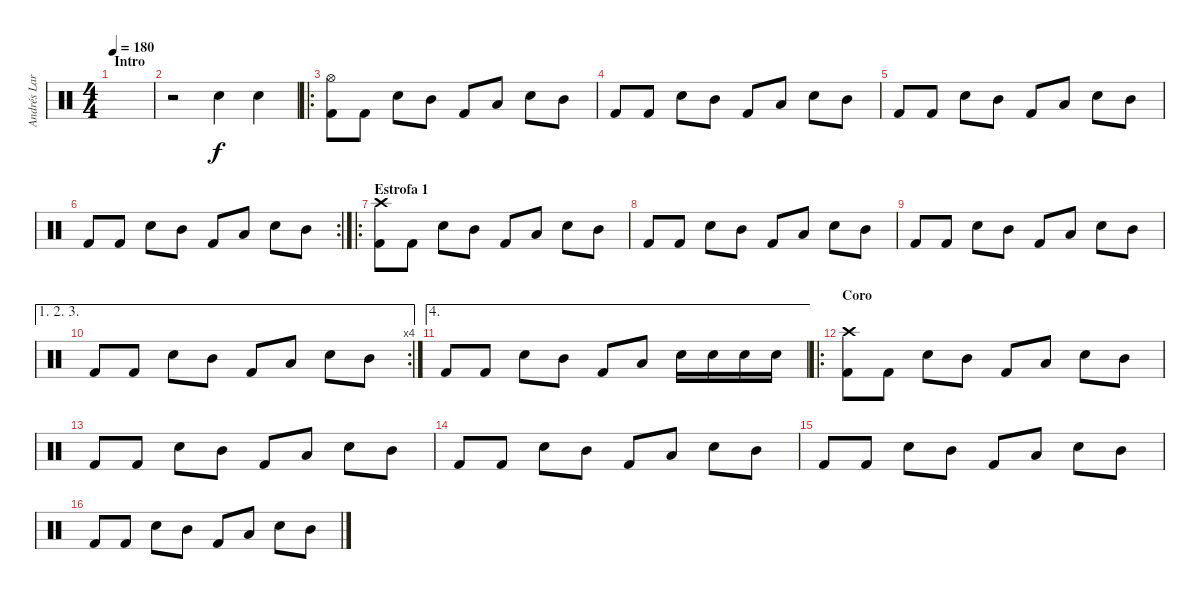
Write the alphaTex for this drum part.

\track ("Andrés Larraín (batería)" "Andrés Lar") {instrument percussion}
\staff {score}
\articulation defaults
\ts (4 4)
\section ("" "Intro")
\tempo 180
\clef neutral
\ks c
|
r.2 "Snare (hit) 2".4 "Snare (hit) 2".4 |
\ro
("Hi-Hat (open)" "Kick (hit) 2").8 "Kick (hit) 2".8 "Electric Snare (hit)".8 "Mid Tom (hit)".8 "Kick (hit) 2".8 "Low Floor Tom (hit)".8 "Electric Snare (hit)".8 "Mid Tom (hit)".8 |
"Kick (hit) 2".8 "Kick (hit) 2".8 "Electric Snare (hit)".8 "Mid Tom (hit)".8 "Kick (hit) 2".8 "Low Floor Tom (hit)".8 "Electric Snare (hit)".8 "Mid Tom (hit)".8 |
"Kick (hit) 2".8 "Kick (hit) 2".8 "Electric Snare (hit)".8 "Mid Tom (hit)".8 "Kick (hit) 2".8 "Low Floor Tom (hit)".8 "Electric Snare (hit)".8 "Mid Tom (hit)".8 |
\rc 2 "Kick (hit) 2".8 "Kick (hit) 2".8 "Electric Snare (hit)".8 "Mid Tom (hit)".8 "Kick (hit) 2".8 "Low Floor Tom (hit)".8 "Electric Snare (hit)".8 "Mid Tom (hit)".8
|
\ro
\section ("" "Estrofa 1")
("Crash high (hit)" "Kick (hit) 2").8 "Kick (hit) 2".8 "Electric Snare (hit)".8 "Mid Tom (hit)".8 "Kick (hit) 2".8 "Low Floor Tom (hit)".8 "Electric Snare (hit)".8 "Mid Tom (hit)".8 |
"Kick (hit) 2".8 "Kick (hit) 2".8 "Electric Snare (hit)".8 "Mid Tom (hit)".8 "Kick (hit) 2".8 "Low Floor Tom (hit)".8 "Electric Snare (hit)".8 "Mid Tom (hit)".8 |
"Kick (hit) 2".8 "Kick (hit) 2".8 "Electric Snare (hit)".8 "Mid Tom (hit)".8 "Kick (hit) 2".8 "Low Floor Tom (hit)".8 "Electric Snare (hit)".8 "Mid Tom (hit)".8 |
\ae (1 2 3)
\rc 4 "Kick (hit) 2".8 "Kick (hit) 2".8 "Electric Snare (hit)".8 "Mid Tom (hit)".8 "Kick (hit) 2".8 "Low Floor Tom (hit)".8 "Electric Snare (hit)".8 "Mid Tom (hit)".8
|
\ae 4 "Kick (hit) 2".8 "Kick (hit) 2".8 "Electric Snare (hit)".8 "Mid Tom (hit)".8 "Kick (hit) 2".8 "Low Floor Tom (hit)".8 "Electric Snare (hit)".16 "Electric Snare (hit)".16 "Electric Snare (hit)".16 "Electric Snare (hit)".16
|
\ro
\section ("" "Coro")
("Crash high (hit)" "Kick (hit) 2").8 "Kick (hit) 2".8 "Electric Snare (hit)".8 "Mid Tom (hit)".8 "Kick (hit) 2".8 "Low Floor Tom (hit)".8 "Electric Snare (hit)".8 "Mid Tom (hit)".8 |
"Kick (hit) 2".8 "Kick (hit) 2".8 "Electric Snare (hit)".8 "Mid Tom (hit)".8 "Kick (hit) 2".8 "Low Floor Tom (hit)".8 "Electric Snare (hit)".8 "Mid Tom (hit)".8 |
"Kick (hit) 2".8 "Kick (hit) 2".8 "Electric Snare (hit)".8 "Mid Tom (hit)".8 "Kick (hit) 2".8 "Low Floor Tom (hit)".8 "Electric Snare (hit)".8 "Mid Tom (hit)".8 |
"Kick (hit) 2".8 "Kick (hit) 2".8 "Electric Snare (hit)".8 "Mid Tom (hit)".8 "Kick (hit) 2".8 "Low Floor Tom (hit)".8 "Electric Snare (hit)".8 "Mid Tom (hit)".8 |
"Kick (hit) 2".8 "Kick (hit) 2".8 "Electric Snare (hit)".8 "Mid Tom (hit)".8 "Kick (hit) 2".8 "Low Floor Tom (hit)".8 "Electric Snare (hit)".8 "Mid Tom (hit)".8
